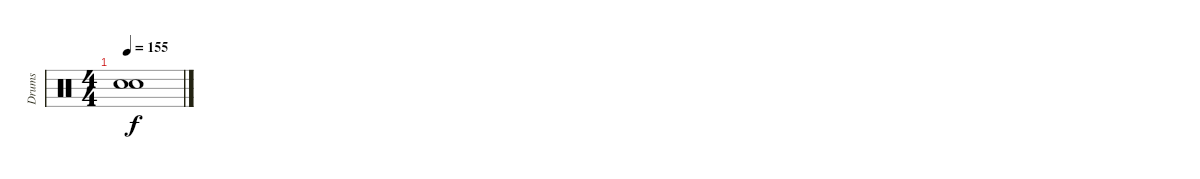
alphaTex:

\track ("Drums" "Drums") {instrument percussion}
\staff {score}
\articulation defaults
\ts (4 4)
\tempo 155
\clef neutral
\ks c
("Snare (hit)"{t} "Snare (hit)"{t}).1{dy f}
